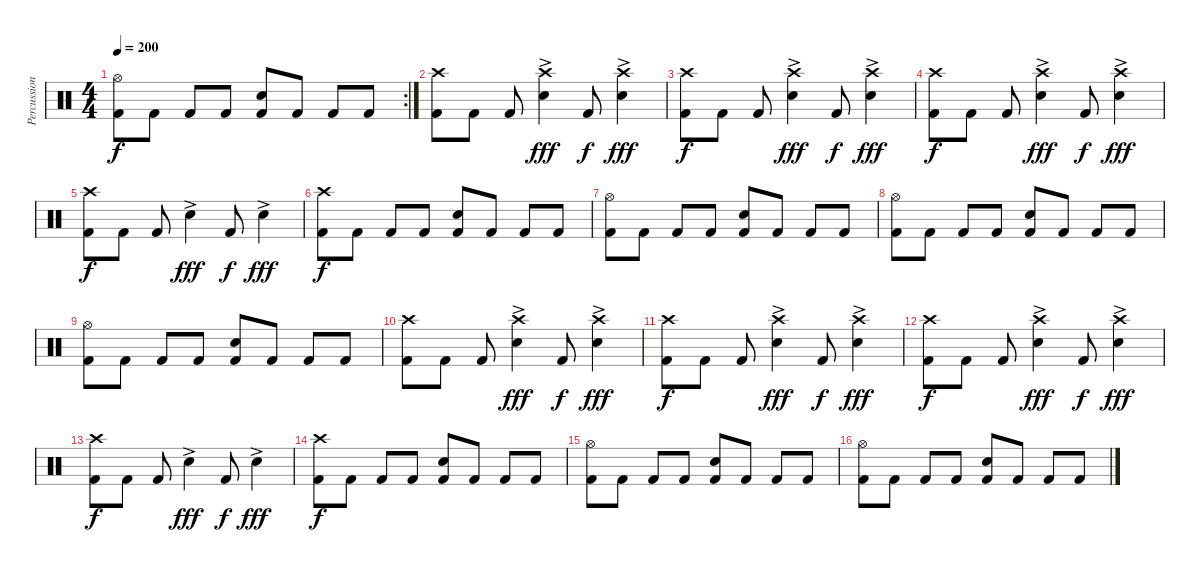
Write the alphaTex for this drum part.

\track ("Percussion" "Percussion") {instrument percussion}
\staff {score}
\articulation defaults
\rc 2
\ts (4 4)
\tempo 200
\clef neutral
\ks c
("Hi-Hat (open)" "Kick (hit) 2").8{dy f} "Kick (hit) 2".8 "Kick (hit) 2".8 "Kick (hit) 2".8 ("Electric Snare (hit)" "Kick (hit) 2").8 "Kick (hit) 2".8 "Kick (hit) 2".8 "Kick (hit) 2".8 |
("Crash high (hit)" "Kick (hit) 2").8 "Kick (hit) 2".8 "Kick (hit) 2".8 ("Crash high (hit)" "Electric Snare (hit)"{ac}).4{dy fff} "Kick (hit) 2".8{dy f} ("Crash high (hit)" "Electric Snare (hit)"{ac}).4{dy fff} |
("Crash high (hit)" "Kick (hit) 2").8{dy f} "Kick (hit) 2".8 "Kick (hit) 2".8 ("Crash high (hit)" "Electric Snare (hit)"{ac}).4{dy fff} "Kick (hit) 2".8{dy f} ("Crash high (hit)" "Electric Snare (hit)"{ac}).4{dy fff} |
("Crash high (hit)" "Kick (hit) 2").8{dy f} "Kick (hit) 2".8 "Kick (hit) 2".8 ("Crash high (hit)" "Electric Snare (hit)"{ac}).4{dy fff} "Kick (hit) 2".8{dy f} ("Crash high (hit)" "Electric Snare (hit)"{ac}).4{dy fff} |
("Crash high (hit)" "Kick (hit) 2").8{dy f} "Kick (hit) 2".8 "Kick (hit) 2".8 "Electric Snare (hit)"{ac}.4{dy fff} "Kick (hit) 2".8{dy f} "Electric Snare (hit)"{ac}.4{dy fff} |
("Crash high (hit)" "Kick (hit) 2").8{dy f} "Kick (hit) 2".8 "Kick (hit) 2".8 "Kick (hit) 2".8 ("Electric Snare (hit)" "Kick (hit) 2").8 "Kick (hit) 2".8 "Kick (hit) 2".8 "Kick (hit) 2".8 |
("Hi-Hat (open)" "Kick (hit) 2").8 "Kick (hit) 2".8 "Kick (hit) 2".8 "Kick (hit) 2".8 ("Electric Snare (hit)" "Kick (hit) 2").8 "Kick (hit) 2".8 "Kick (hit) 2".8 "Kick (hit) 2".8 |
("Hi-Hat (open)" "Kick (hit) 2").8 "Kick (hit) 2".8 "Kick (hit) 2".8 "Kick (hit) 2".8 ("Electric Snare (hit)" "Kick (hit) 2").8 "Kick (hit) 2".8 "Kick (hit) 2".8 "Kick (hit) 2".8 |
("Hi-Hat (open)" "Kick (hit) 2").8 "Kick (hit) 2".8 "Kick (hit) 2".8 "Kick (hit) 2".8 ("Electric Snare (hit)" "Kick (hit) 2").8 "Kick (hit) 2".8 "Kick (hit) 2".8 "Kick (hit) 2".8 |
("Crash high (hit)" "Kick (hit) 2").8 "Kick (hit) 2".8 "Kick (hit) 2".8 ("Crash high (hit)" "Electric Snare (hit)"{ac}).4{dy fff} "Kick (hit) 2".8{dy f} ("Crash high (hit)" "Electric Snare (hit)"{ac}).4{dy fff} |
("Crash high (hit)" "Kick (hit) 2").8{dy f} "Kick (hit) 2".8 "Kick (hit) 2".8 ("Crash high (hit)" "Electric Snare (hit)"{ac}).4{dy fff} "Kick (hit) 2".8{dy f} ("Crash high (hit)" "Electric Snare (hit)"{ac}).4{dy fff} |
("Crash high (hit)" "Kick (hit) 2").8{dy f} "Kick (hit) 2".8 "Kick (hit) 2".8 ("Crash high (hit)" "Electric Snare (hit)"{ac}).4{dy fff} "Kick (hit) 2".8{dy f} ("Crash high (hit)" "Electric Snare (hit)"{ac}).4{dy fff} |
("Crash high (hit)" "Kick (hit) 2").8{dy f} "Kick (hit) 2".8 "Kick (hit) 2".8 "Electric Snare (hit)"{ac}.4{dy fff} "Kick (hit) 2".8{dy f} "Electric Snare (hit)"{ac}.4{dy fff} |
("Crash high (hit)" "Kick (hit) 2").8{dy f} "Kick (hit) 2".8 "Kick (hit) 2".8 "Kick (hit) 2".8 ("Electric Snare (hit)" "Kick (hit) 2").8 "Kick (hit) 2".8 "Kick (hit) 2".8 "Kick (hit) 2".8 |
("Hi-Hat (open)" "Kick (hit) 2").8 "Kick (hit) 2".8 "Kick (hit) 2".8 "Kick (hit) 2".8 ("Electric Snare (hit)" "Kick (hit) 2").8 "Kick (hit) 2".8 "Kick (hit) 2".8 "Kick (hit) 2".8 |
("Hi-Hat (open)" "Kick (hit) 2").8 "Kick (hit) 2".8 "Kick (hit) 2".8 "Kick (hit) 2".8 ("Electric Snare (hit)" "Kick (hit) 2").8 "Kick (hit) 2".8 "Kick (hit) 2".8 "Kick (hit) 2".8
